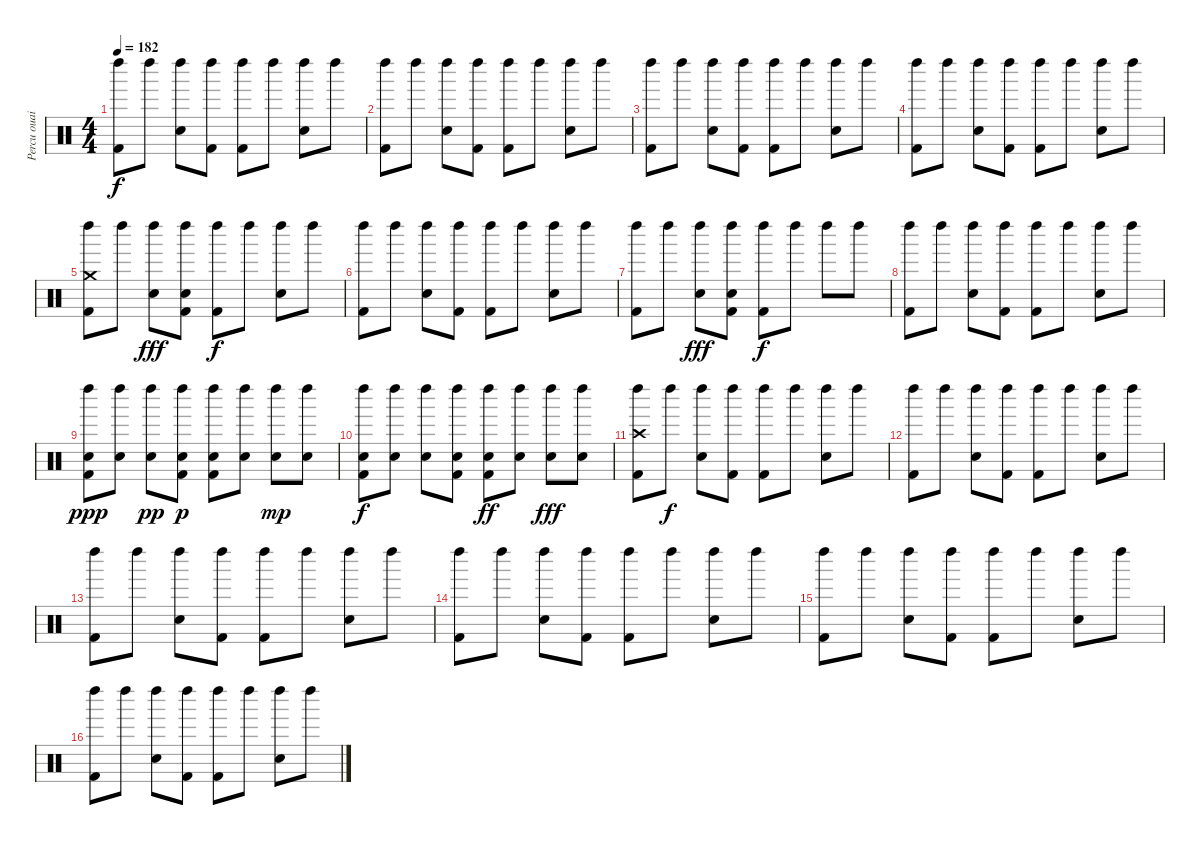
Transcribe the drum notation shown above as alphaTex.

\track ("Percu ouaih !" "Percu ouai") {instrument percussion}
\staff {score}
\articulation defaults
\ts (4 4)
\tempo 182
\clef neutral
\ks c
("Left Maraca (hit)" "Kick (hit) 2").8{dy f} "Left Maraca (hit)".8 ("Left Maraca (hit)" "Snare (hit) 2").8 ("Left Maraca (hit)" "Kick (hit) 2").8 ("Left Maraca (hit)" "Kick (hit) 2").8 "Left Maraca (hit)".8 ("Left Maraca (hit)" "Electric Snare (hit)").8 "Left Maraca (hit)".8 |
("Left Maraca (hit)" "Kick (hit) 2").8 "Left Maraca (hit)".8 ("Left Maraca (hit)" "Snare (hit) 2").8 ("Left Maraca (hit)" "Kick (hit) 2").8 ("Left Maraca (hit)" "Kick (hit) 2").8 "Left Maraca (hit)".8 ("Left Maraca (hit)" "Electric Snare (hit)").8 "Left Maraca (hit)".8 |
("Left Maraca (hit)" "Kick (hit) 2").8 "Left Maraca (hit)".8 ("Left Maraca (hit)" "Snare (hit) 2").8 ("Left Maraca (hit)" "Kick (hit) 2").8 ("Left Maraca (hit)" "Kick (hit) 2").8 "Left Maraca (hit)".8 ("Left Maraca (hit)" "Electric Snare (hit)").8 "Left Maraca (hit)".8 |
("Left Maraca (hit)" "Kick (hit) 2").8 "Left Maraca (hit)".8 ("Left Maraca (hit)" "Snare (hit) 2").8 ("Left Maraca (hit)" "Kick (hit) 2").8 ("Left Maraca (hit)" "Kick (hit) 2").8 "Left Maraca (hit)".8 ("Left Maraca (hit)" "Electric Snare (hit)").8 "Left Maraca (hit)".8 |
("Left Maraca (hit)" "Crash medium (hit)" "Kick (hit) 2").8 "Left Maraca (hit)".8 ("Left Maraca (hit)" "Hand Clap (hit)").8{dy fff} ("Left Maraca (hit)" "Hand Clap (hit)" "Kick (hit) 2").8 ("Left Maraca (hit)" "Kick (hit) 2").8{dy f} "Left Maraca (hit)".8 ("Left Maraca (hit)" "Electric Snare (hit)").8 "Left Maraca (hit)".8 |
("Left Maraca (hit)" "Kick (hit) 2").8 "Left Maraca (hit)".8 ("Left Maraca (hit)" "Snare (hit) 2").8 ("Left Maraca (hit)" "Kick (hit) 2").8 ("Left Maraca (hit)" "Kick (hit) 2").8 "Left Maraca (hit)".8 ("Left Maraca (hit)" "Electric Snare (hit)").8 "Left Maraca (hit)".8 |
("Left Maraca (hit)" "Kick (hit) 2").8 "Left Maraca (hit)".8 ("Left Maraca (hit)" "Hand Clap (hit)").8{dy fff} ("Left Maraca (hit)" "Hand Clap (hit)" "Kick (hit) 2").8 ("Left Maraca (hit)" "Kick (hit) 2").8{dy f} "Left Maraca (hit)".8 "Left Maraca (hit)".8 "Left Maraca (hit)".8 |
("Left Maraca (hit)" "Kick (hit) 2").8 "Left Maraca (hit)".8 ("Left Maraca (hit)" "Snare (hit) 2").8 ("Left Maraca (hit)" "Kick (hit) 2").8 ("Left Maraca (hit)" "Kick (hit) 2").8 "Left Maraca (hit)".8 ("Left Maraca (hit)" "Electric Snare (hit)").8 "Left Maraca (hit)".8 |
("Left Maraca (hit)" "Electric Snare (hit)" "Kick (hit) 2").8{dy ppp} ("Left Maraca (hit)" "Electric Snare (hit)").8 ("Left Maraca (hit)" "Electric Snare (hit)").8{dy pp} ("Left Maraca (hit)" "Electric Snare (hit)" "Kick (hit) 2").8{dy p} ("Left Maraca (hit)" "Electric Snare (hit)" "Kick (hit) 2").8 ("Left Maraca (hit)" "Electric Snare (hit)").8 ("Left Maraca (hit)" "Electric Snare (hit)").8{dy mp} ("Left Maraca (hit)" "Electric Snare (hit)").8 |
("Left Maraca (hit)" "Electric Snare (hit)" "Kick (hit) 2").8{dy f} ("Left Maraca (hit)" "Electric Snare (hit)").8 ("Left Maraca (hit)" "Electric Snare (hit)").8 ("Left Maraca (hit)" "Electric Snare (hit)" "Kick (hit) 2").8 ("Left Maraca (hit)" "Electric Snare (hit)" "Kick (hit) 2").8{dy ff} ("Left Maraca (hit)" "Electric Snare (hit)").8 ("Left Maraca (hit)" "Electric Snare (hit)").8{dy fff} ("Left Maraca (hit)" "Electric Snare (hit)").8 |
("Left Maraca (hit)" "Crash high (hit)" "Kick (hit) 2").8 "Left Maraca (hit)".8{dy f} ("Left Maraca (hit)" "Snare (hit) 2").8 ("Left Maraca (hit)" "Kick (hit) 2").8 ("Left Maraca (hit)" "Kick (hit) 2").8 "Left Maraca (hit)".8 ("Left Maraca (hit)" "Electric Snare (hit)").8 "Left Maraca (hit)".8 |
("Left Maraca (hit)" "Kick (hit) 2").8 "Left Maraca (hit)".8 ("Left Maraca (hit)" "Snare (hit) 2").8 ("Left Maraca (hit)" "Kick (hit) 2").8 ("Left Maraca (hit)" "Kick (hit) 2").8 "Left Maraca (hit)".8 ("Left Maraca (hit)" "Electric Snare (hit)").8 "Left Maraca (hit)".8 |
("Left Maraca (hit)" "Kick (hit) 2").8 "Left Maraca (hit)".8 ("Left Maraca (hit)" "Snare (hit) 2").8 ("Left Maraca (hit)" "Kick (hit) 2").8 ("Left Maraca (hit)" "Kick (hit) 2").8 "Left Maraca (hit)".8 ("Left Maraca (hit)" "Electric Snare (hit)").8 "Left Maraca (hit)".8 |
("Left Maraca (hit)" "Kick (hit) 2").8 "Left Maraca (hit)".8 ("Left Maraca (hit)" "Snare (hit) 2").8 ("Left Maraca (hit)" "Kick (hit) 2").8 ("Left Maraca (hit)" "Kick (hit) 2").8 "Left Maraca (hit)".8 ("Left Maraca (hit)" "Electric Snare (hit)").8 "Left Maraca (hit)".8 |
("Left Maraca (hit)" "Kick (hit) 2").8 "Left Maraca (hit)".8 ("Left Maraca (hit)" "Snare (hit) 2").8 ("Left Maraca (hit)" "Kick (hit) 2").8 ("Left Maraca (hit)" "Kick (hit) 2").8 "Left Maraca (hit)".8 ("Left Maraca (hit)" "Electric Snare (hit)").8 "Left Maraca (hit)".8 |
("Left Maraca (hit)" "Kick (hit) 2").8 "Left Maraca (hit)".8 ("Left Maraca (hit)" "Snare (hit) 2").8 ("Left Maraca (hit)" "Kick (hit) 2").8 ("Left Maraca (hit)" "Kick (hit) 2").8 "Left Maraca (hit)".8 ("Left Maraca (hit)" "Electric Snare (hit)").8 "Left Maraca (hit)".8
